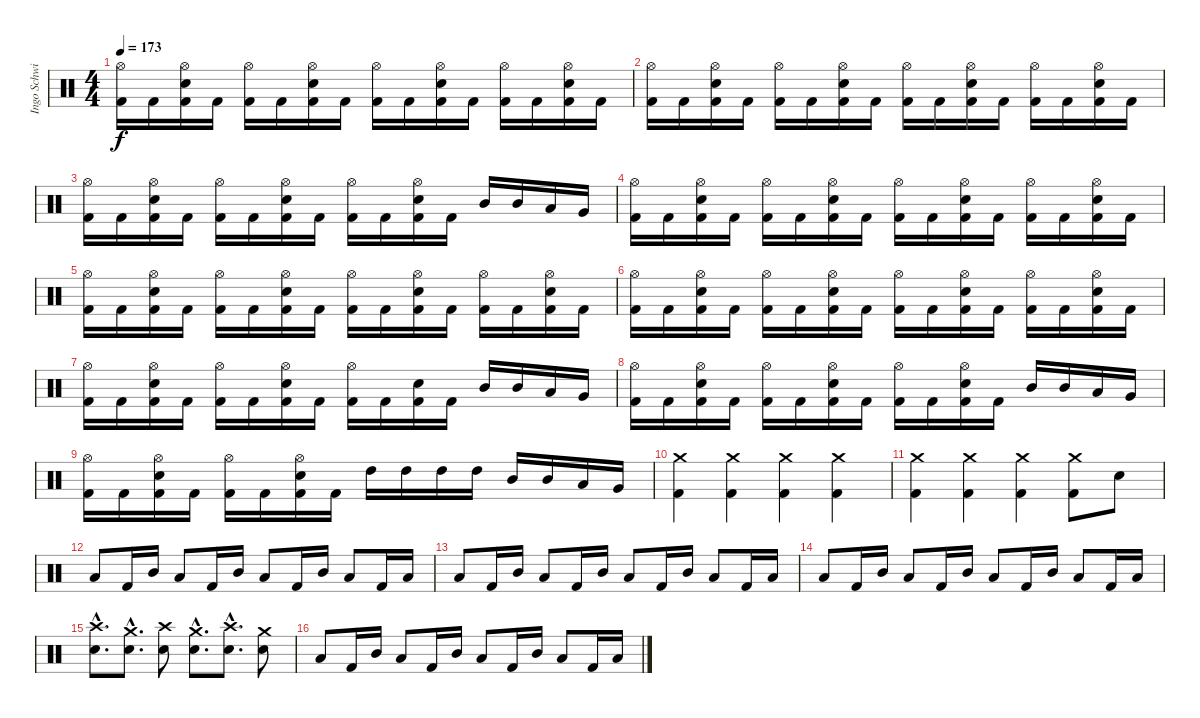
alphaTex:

\track ("Ingo Schwichtenberg" "Ingo Schwi") {instrument percussion}
\staff {score}
\articulation defaults
\ts (4 4)
\tempo 173
\clef neutral
\ks c
("Hi-Hat (open)" "Kick (hit) 2").16{dy f} "Kick (hit) 2".16 ("Hi-Hat (open)" "Electric Snare (hit)" "Kick (hit) 2").16 "Kick (hit) 2".16 ("Hi-Hat (open)" "Kick (hit) 2").16 "Kick (hit) 2".16 ("Hi-Hat (open)" "Electric Snare (hit)" "Kick (hit) 2").16 "Kick (hit) 2".16 ("Hi-Hat (open)" "Kick (hit) 2").16 "Kick (hit) 2".16 ("Hi-Hat (open)" "Electric Snare (hit)" "Kick (hit) 2").16 "Kick (hit) 2".16 ("Hi-Hat (open)" "Kick (hit) 2").16 "Kick (hit) 2".16 ("Hi-Hat (open)" "Electric Snare (hit)" "Kick (hit) 2").16 "Kick (hit) 2".16 |
("Hi-Hat (open)" "Kick (hit) 2").16 "Kick (hit) 2".16 ("Hi-Hat (open)" "Electric Snare (hit)" "Kick (hit) 2").16 "Kick (hit) 2".16 ("Hi-Hat (open)" "Kick (hit) 2").16 "Kick (hit) 2".16 ("Hi-Hat (open)" "Electric Snare (hit)" "Kick (hit) 2").16 "Kick (hit) 2".16 ("Hi-Hat (open)" "Kick (hit) 2").16 "Kick (hit) 2".16 ("Hi-Hat (open)" "Electric Snare (hit)" "Kick (hit) 2").16 "Kick (hit) 2".16 ("Hi-Hat (open)" "Kick (hit) 2").16 "Kick (hit) 2".16 ("Hi-Hat (open)" "Electric Snare (hit)" "Kick (hit) 2").16 "Kick (hit) 2".16 |
("Hi-Hat (open)" "Kick (hit) 2").16 "Kick (hit) 2".16 ("Hi-Hat (open)" "Electric Snare (hit)" "Kick (hit) 2").16 "Kick (hit) 2".16 ("Hi-Hat (open)" "Kick (hit) 2").16 "Kick (hit) 2".16 ("Hi-Hat (open)" "Electric Snare (hit)" "Kick (hit) 2").16 "Kick (hit) 2".16 ("Hi-Hat (open)" "Kick (hit) 2").16 "Kick (hit) 2".16 ("Hi-Hat (open)" "Electric Snare (hit)" "Kick (hit) 2").16 "Kick (hit) 2".16 "Mid Tom (hit)".16 "Mid Tom (hit)".16 "Low Tom (hit)".16 "Very Low Tom (hit)".16 |
("Hi-Hat (open)" "Kick (hit) 2").16 "Kick (hit) 2".16 ("Hi-Hat (open)" "Electric Snare (hit)" "Kick (hit) 2").16 "Kick (hit) 2".16 ("Hi-Hat (open)" "Kick (hit) 2").16 "Kick (hit) 2".16 ("Hi-Hat (open)" "Electric Snare (hit)" "Kick (hit) 2").16 "Kick (hit) 2".16 ("Hi-Hat (open)" "Kick (hit) 2").16 "Kick (hit) 2".16 ("Hi-Hat (open)" "Electric Snare (hit)" "Kick (hit) 2").16 "Kick (hit) 2".16 ("Hi-Hat (open)" "Kick (hit) 2").16 "Kick (hit) 2".16 ("Hi-Hat (open)" "Electric Snare (hit)" "Kick (hit) 2").16 "Kick (hit) 2".16 |
("Hi-Hat (open)" "Kick (hit) 2").16 "Kick (hit) 2".16 ("Hi-Hat (open)" "Electric Snare (hit)" "Kick (hit) 2").16 "Kick (hit) 2".16 ("Hi-Hat (open)" "Kick (hit) 2").16 "Kick (hit) 2".16 ("Hi-Hat (open)" "Electric Snare (hit)" "Kick (hit) 2").16 "Kick (hit) 2".16 ("Hi-Hat (open)" "Kick (hit) 2").16 "Kick (hit) 2".16 ("Hi-Hat (open)" "Electric Snare (hit)" "Kick (hit) 2").16 "Kick (hit) 2".16 ("Hi-Hat (open)" "Kick (hit) 2").16 "Kick (hit) 2".16 ("Hi-Hat (open)" "Electric Snare (hit)" "Kick (hit) 2").16 "Kick (hit) 2".16 |
("Hi-Hat (open)" "Kick (hit) 2").16 "Kick (hit) 2".16 ("Hi-Hat (open)" "Electric Snare (hit)" "Kick (hit) 2").16 "Kick (hit) 2".16 ("Hi-Hat (open)" "Kick (hit) 2").16 "Kick (hit) 2".16 ("Hi-Hat (open)" "Electric Snare (hit)" "Kick (hit) 2").16 "Kick (hit) 2".16 ("Hi-Hat (open)" "Kick (hit) 2").16 "Kick (hit) 2".16 ("Hi-Hat (open)" "Electric Snare (hit)" "Kick (hit) 2").16 "Kick (hit) 2".16 ("Hi-Hat (open)" "Kick (hit) 2").16 "Kick (hit) 2".16 ("Hi-Hat (open)" "Electric Snare (hit)" "Kick (hit) 2").16 "Kick (hit) 2".16 |
("Hi-Hat (open)" "Kick (hit) 2").16 "Kick (hit) 2".16 ("Hi-Hat (open)" "Electric Snare (hit)" "Kick (hit) 2").16 "Kick (hit) 2".16 ("Hi-Hat (open)" "Kick (hit) 2").16 "Kick (hit) 2".16 ("Hi-Hat (open)" "Electric Snare (hit)" "Kick (hit) 2").16 "Kick (hit) 2".16 ("Hi-Hat (open)" "Kick (hit) 2").16 "Kick (hit) 2".16 ("Electric Snare (hit)" "Kick (hit) 2").16 "Kick (hit) 2".16 "Mid Tom (hit)".16 "Mid Tom (hit)".16 "Low Tom (hit)".16 "Very Low Tom (hit)".16 |
("Hi-Hat (open)" "Kick (hit) 2").16 "Kick (hit) 2".16 ("Hi-Hat (open)" "Electric Snare (hit)" "Kick (hit) 2").16 "Kick (hit) 2".16 ("Hi-Hat (open)" "Kick (hit) 2").16 "Kick (hit) 2".16 ("Hi-Hat (open)" "Electric Snare (hit)" "Kick (hit) 2").16 "Kick (hit) 2".16 ("Hi-Hat (open)" "Kick (hit) 2").16 "Kick (hit) 2".16 ("Hi-Hat (open)" "Electric Snare (hit)" "Kick (hit) 2").16 "Kick (hit) 2".16 "Mid Tom (hit)".16 "Mid Tom (hit)".16 "Low Tom (hit)".16 "Very Low Tom (hit)".16 |
("Hi-Hat (open)" "Kick (hit) 2").16 "Kick (hit) 2".16 ("Hi-Hat (open)" "Electric Snare (hit)" "Kick (hit) 2").16 "Kick (hit) 2".16 ("Hi-Hat (open)" "Kick (hit) 2").16 "Kick (hit) 2".16 ("Hi-Hat (open)" "Electric Snare (hit)" "Kick (hit) 2").16 "Kick (hit) 2".16 "High Tom (hit)".16 "High Tom (hit)".16 "High Tom (hit)".16 "High Tom (hit)".16 "Mid Tom (hit)".16 "Mid Tom (hit)".16 "Low Tom (hit)".16 "Very Low Tom (hit)".16 |
("Crash medium (hit)" "Kick (hit) 2").4 ("Crash medium (hit)" "Kick (hit) 2").4 ("Crash medium (hit)" "Kick (hit) 2").4 ("Crash medium (hit)" "Kick (hit) 2").4 |
("Crash medium (hit)" "Kick (hit) 2").4 ("Crash medium (hit)" "Kick (hit) 2").4 ("Crash medium (hit)" "Kick (hit) 2").4 ("Crash medium (hit)" "Kick (hit) 2").8 "Electric Snare (hit)".8 |
"Low Tom (hit)".8 "Kick (hit) 2".16 "Mid Tom (hit)".16 "Low Tom (hit)".8 "Kick (hit) 2".16 "Mid Tom (hit)".16 "Low Tom (hit)".8 "Kick (hit) 2".16 "Mid Tom (hit)".16 "Low Tom (hit)".8 "Kick (hit) 2".16 "Low Tom (hit)".16 |
"Low Tom (hit)".8 "Kick (hit) 2".16 "Mid Tom (hit)".16 "Low Tom (hit)".8 "Kick (hit) 2".16 "Mid Tom (hit)".16 "Low Tom (hit)".8 "Kick (hit) 2".16 "Mid Tom (hit)".16 "Low Tom (hit)".8 "Kick (hit) 2".16 "Low Tom (hit)".16 |
"Low Tom (hit)".8 "Kick (hit) 2".16 "Mid Tom (hit)".16 "Low Tom (hit)".8 "Kick (hit) 2".16 "Mid Tom (hit)".16 "Low Tom (hit)".8 "Kick (hit) 2".16 "Mid Tom (hit)".16 "Low Tom (hit)".8 "Kick (hit) 2".16 "Low Tom (hit)".16 |
("Crash high (hit)"{hac} "Electric Snare (hit)"{hac}).8{d} ("Crash medium (hit)"{hac} "Electric Snare (hit)"{hac}).8{d} ("Crash high (hit)" "Electric Snare (hit)").8 ("Crash medium (hit)"{hac} "Electric Snare (hit)"{hac}).8{d} ("Crash high (hit)"{hac} "Electric Snare (hit)"{hac}).8{d} ("Crash medium (hit)" "Electric Snare (hit)").8 |
"Low Tom (hit)".8 "Kick (hit) 2".16 "Mid Tom (hit)".16 "Low Tom (hit)".8 "Kick (hit) 2".16 "Mid Tom (hit)".16 "Low Tom (hit)".8 "Kick (hit) 2".16 "Mid Tom (hit)".16 "Low Tom (hit)".8 "Kick (hit) 2".16 "Low Tom (hit)".16
